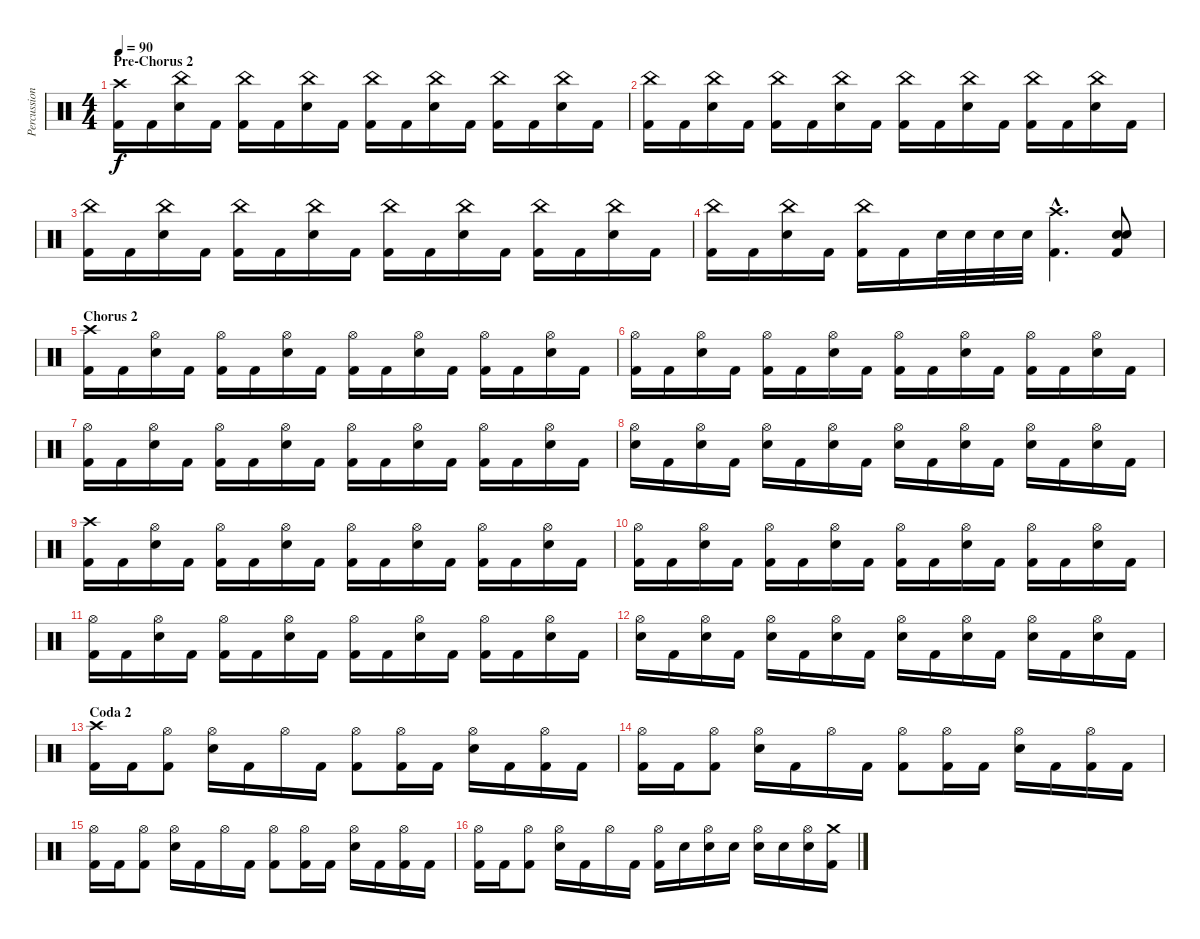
\track ("Percussion" "Percussion") {instrument percussion}
\staff {score}
\articulation defaults
\ts (4 4)
\section ("" "Pre-Chorus 2")
\tempo 90
\clef neutral
\ks c
("Kick (hit) 2" "Crash high (hit)").16{dy f} "Kick (hit) 2".16 ("Electric Snare (hit)" "China (hit)").16 "Kick (hit) 2".16 ("Kick (hit) 2" "China (hit)").16 "Kick (hit) 2".16 ("Electric Snare (hit)" "China (hit)").16 "Kick (hit) 2".16 ("Kick (hit) 2" "China (hit)").16 "Kick (hit) 2".16 ("Electric Snare (hit)" "China (hit)").16 "Kick (hit) 2".16 ("Kick (hit) 2" "China (hit)").16 "Kick (hit) 2".16 ("Electric Snare (hit)" "China (hit)").16 "Kick (hit) 2".16 |
("Kick (hit) 2" "China (hit)").16 "Kick (hit) 2".16 ("Electric Snare (hit)" "China (hit)").16 "Kick (hit) 2".16 ("Kick (hit) 2" "China (hit)").16 "Kick (hit) 2".16 ("Electric Snare (hit)" "China (hit)").16 "Kick (hit) 2".16 ("Kick (hit) 2" "China (hit)").16 "Kick (hit) 2".16 ("Electric Snare (hit)" "China (hit)").16 "Kick (hit) 2".16 ("Kick (hit) 2" "China (hit)").16 "Kick (hit) 2".16 ("Electric Snare (hit)" "China (hit)").16 "Kick (hit) 2".16 |
("Kick (hit) 2" "China (hit)").16 "Kick (hit) 2".16 ("Electric Snare (hit)" "China (hit)").16 "Kick (hit) 2".16 ("Kick (hit) 2" "China (hit)").16 "Kick (hit) 2".16 ("Electric Snare (hit)" "China (hit)").16 "Kick (hit) 2".16 ("Kick (hit) 2" "China (hit)").16 "Kick (hit) 2".16 ("Electric Snare (hit)" "China (hit)").16 "Kick (hit) 2".16 ("Kick (hit) 2" "China (hit)").16 "Kick (hit) 2".16 ("Electric Snare (hit)" "China (hit)").16 "Kick (hit) 2".16 |
("Kick (hit) 2" "China (hit)").16 "Kick (hit) 2".16 ("Electric Snare (hit)" "China (hit)").16 "Kick (hit) 2".16 ("Kick (hit) 2" "China (hit)").16 "Kick (hit) 2".16 "Electric Snare (hit)".32 "Electric Snare (hit)".32 "Electric Snare (hit)".32 "Electric Snare (hit)".32 ("Kick (hit) 2"{hac} "Crash high (hit)"{hac}).4{d} ("Snare (hit) 2" "Electric Snare (hit)" "Kick (hit) 2").8 |
\section ("" "Chorus 2")
("Kick (hit) 2" "Crash high (hit)").16 "Kick (hit) 2".16 ("Electric Snare (hit)" "Hi-Hat (open)").16 "Kick (hit) 2".16 ("Kick (hit) 2" "Hi-Hat (open)").16 "Kick (hit) 2".16 ("Electric Snare (hit)" "Hi-Hat (open)").16 "Kick (hit) 2".16 ("Kick (hit) 2" "Hi-Hat (open)").16 "Kick (hit) 2".16 ("Electric Snare (hit)" "Hi-Hat (open)").16 "Kick (hit) 2".16 ("Kick (hit) 2" "Hi-Hat (open)").16 "Kick (hit) 2".16 ("Electric Snare (hit)" "Hi-Hat (open)").16 "Kick (hit) 2".16 |
("Kick (hit) 2" "Hi-Hat (open)").16 "Kick (hit) 2".16 ("Electric Snare (hit)" "Hi-Hat (open)").16 "Kick (hit) 2".16 ("Kick (hit) 2" "Hi-Hat (open)").16 "Kick (hit) 2".16 ("Electric Snare (hit)" "Hi-Hat (open)").16 "Kick (hit) 2".16 ("Kick (hit) 2" "Hi-Hat (open)").16 "Kick (hit) 2".16 ("Electric Snare (hit)" "Hi-Hat (open)").16 "Kick (hit) 2".16 ("Kick (hit) 2" "Hi-Hat (open)").16 "Kick (hit) 2".16 ("Electric Snare (hit)" "Hi-Hat (open)").16 "Kick (hit) 2".16 |
("Kick (hit) 2" "Hi-Hat (open)").16 "Kick (hit) 2".16 ("Electric Snare (hit)" "Hi-Hat (open)").16 "Kick (hit) 2".16 ("Kick (hit) 2" "Hi-Hat (open)").16 "Kick (hit) 2".16 ("Electric Snare (hit)" "Hi-Hat (open)").16 "Kick (hit) 2".16 ("Kick (hit) 2" "Hi-Hat (open)").16 "Kick (hit) 2".16 ("Electric Snare (hit)" "Hi-Hat (open)").16 "Kick (hit) 2".16 ("Kick (hit) 2" "Hi-Hat (open)").16 "Kick (hit) 2".16 ("Electric Snare (hit)" "Hi-Hat (open)").16 "Kick (hit) 2".16 |
("Electric Snare (hit)" "Hi-Hat (open)").16 "Kick (hit) 2".16 ("Electric Snare (hit)" "Hi-Hat (open)").16 "Kick (hit) 2".16 ("Electric Snare (hit)" "Hi-Hat (open)").16 "Kick (hit) 2".16 ("Electric Snare (hit)" "Hi-Hat (open)").16 "Kick (hit) 2".16 ("Electric Snare (hit)" "Hi-Hat (open)").16 "Kick (hit) 2".16 ("Electric Snare (hit)" "Hi-Hat (open)").16 "Kick (hit) 2".16 ("Electric Snare (hit)" "Hi-Hat (open)").16 "Kick (hit) 2".16 ("Electric Snare (hit)" "Hi-Hat (open)").16 "Kick (hit) 2".16 |
("Kick (hit) 2" "Crash high (hit)").16 "Kick (hit) 2".16 ("Electric Snare (hit)" "Hi-Hat (open)").16 "Kick (hit) 2".16 ("Kick (hit) 2" "Hi-Hat (open)").16 "Kick (hit) 2".16 ("Electric Snare (hit)" "Hi-Hat (open)").16 "Kick (hit) 2".16 ("Kick (hit) 2" "Hi-Hat (open)").16 "Kick (hit) 2".16 ("Electric Snare (hit)" "Hi-Hat (open)").16 "Kick (hit) 2".16 ("Kick (hit) 2" "Hi-Hat (open)").16 "Kick (hit) 2".16 ("Electric Snare (hit)" "Hi-Hat (open)").16 "Kick (hit) 2".16 |
("Kick (hit) 2" "Hi-Hat (open)").16 "Kick (hit) 2".16 ("Electric Snare (hit)" "Hi-Hat (open)").16 "Kick (hit) 2".16 ("Kick (hit) 2" "Hi-Hat (open)").16 "Kick (hit) 2".16 ("Electric Snare (hit)" "Hi-Hat (open)").16 "Kick (hit) 2".16 ("Kick (hit) 2" "Hi-Hat (open)").16 "Kick (hit) 2".16 ("Electric Snare (hit)" "Hi-Hat (open)").16 "Kick (hit) 2".16 ("Kick (hit) 2" "Hi-Hat (open)").16 "Kick (hit) 2".16 ("Electric Snare (hit)" "Hi-Hat (open)").16 "Kick (hit) 2".16 |
("Kick (hit) 2" "Hi-Hat (open)").16 "Kick (hit) 2".16 ("Electric Snare (hit)" "Hi-Hat (open)").16 "Kick (hit) 2".16 ("Kick (hit) 2" "Hi-Hat (open)").16 "Kick (hit) 2".16 ("Electric Snare (hit)" "Hi-Hat (open)").16 "Kick (hit) 2".16 ("Kick (hit) 2" "Hi-Hat (open)").16 "Kick (hit) 2".16 ("Electric Snare (hit)" "Hi-Hat (open)").16 "Kick (hit) 2".16 ("Kick (hit) 2" "Hi-Hat (open)").16 "Kick (hit) 2".16 ("Electric Snare (hit)" "Hi-Hat (open)").16 "Kick (hit) 2".16 |
("Electric Snare (hit)" "Hi-Hat (open)").16 "Kick (hit) 2".16 ("Electric Snare (hit)" "Hi-Hat (open)").16 "Kick (hit) 2".16 ("Electric Snare (hit)" "Hi-Hat (open)").16 "Kick (hit) 2".16 ("Electric Snare (hit)" "Hi-Hat (open)").16 "Kick (hit) 2".16 ("Electric Snare (hit)" "Hi-Hat (open)").16 "Kick (hit) 2".16 ("Electric Snare (hit)" "Hi-Hat (open)").16 "Kick (hit) 2".16 ("Electric Snare (hit)" "Hi-Hat (open)").16 "Kick (hit) 2".16 ("Electric Snare (hit)" "Hi-Hat (open)").16 "Kick (hit) 2".16 |
\section ("" "Coda 2")
("Kick (hit) 2" "Crash high (hit)").16 "Kick (hit) 2".16 ("Kick (hit) 2" "Hi-Hat (open)").8 ("Electric Snare (hit)" "Hi-Hat (open)").16 "Kick (hit) 2".16 "Hi-Hat (open)".16 "Kick (hit) 2".16 ("Kick (hit) 2" "Hi-Hat (open)").8 ("Kick (hit) 2" "Hi-Hat (open)").16 "Kick (hit) 2".16 ("Electric Snare (hit)" "Hi-Hat (open)").16 "Kick (hit) 2".16 ("Kick (hit) 2" "Hi-Hat (open)").16 "Kick (hit) 2".16 |
("Kick (hit) 2" "Hi-Hat (open)").16 "Kick (hit) 2".16 ("Kick (hit) 2" "Hi-Hat (open)").8 ("Electric Snare (hit)" "Hi-Hat (open)").16 "Kick (hit) 2".16 "Hi-Hat (open)".16 "Kick (hit) 2".16 ("Kick (hit) 2" "Hi-Hat (open)").8 ("Kick (hit) 2" "Hi-Hat (open)").16 "Kick (hit) 2".16 ("Electric Snare (hit)" "Hi-Hat (open)").16 "Kick (hit) 2".16 ("Kick (hit) 2" "Hi-Hat (open)").16 "Kick (hit) 2".16 |
("Kick (hit) 2" "Hi-Hat (open)").16 "Kick (hit) 2".16 ("Kick (hit) 2" "Hi-Hat (open)").8 ("Electric Snare (hit)" "Hi-Hat (open)").16 "Kick (hit) 2".16 "Hi-Hat (open)".16 "Kick (hit) 2".16 ("Kick (hit) 2" "Hi-Hat (open)").8 ("Kick (hit) 2" "Hi-Hat (open)").16 "Kick (hit) 2".16 ("Electric Snare (hit)" "Hi-Hat (open)").16 "Kick (hit) 2".16 ("Kick (hit) 2" "Hi-Hat (open)").16 "Kick (hit) 2".16 |
("Kick (hit) 2" "Hi-Hat (open)").16 "Kick (hit) 2".16 ("Kick (hit) 2" "Hi-Hat (open)").8 ("Electric Snare (hit)" "Hi-Hat (open)").16 "Kick (hit) 2".16 "Hi-Hat (open)".16 "Kick (hit) 2".16 ("Kick (hit) 2" "Hi-Hat (open)").16 "Electric Snare (hit)".16 ("Electric Snare (hit)" "Hi-Hat (open)").16 "Electric Snare (hit)".16 ("Electric Snare (hit)" "Hi-Hat (open)").16 "Electric Snare (hit)".16 ("Electric Snare (hit)" "Hi-Hat (open)").16 ("Kick (hit) 2" "Crash medium (hit)").16
